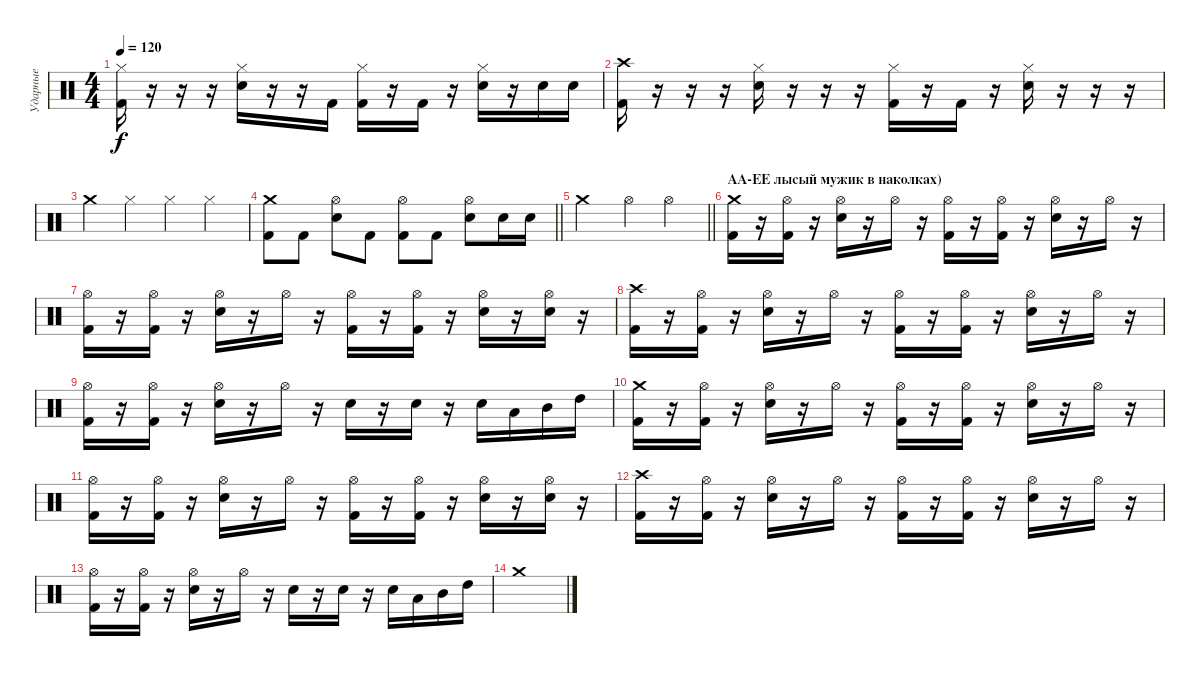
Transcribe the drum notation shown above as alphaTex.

\track ("Ударные" "Ударные") {instrument percussion}
\staff {score}
\articulation defaults
\ts (4 4)
\tempo 120
\clef neutral
\ks c
("Kick (hit) 2" "Hi-Hat (closed)").16{dy f} r.16 r.16 r.16 ("Hi-Hat (closed)" "Electric Snare (hit)").16 r.16 r.16 "Kick (hit) 2".16 ("Hi-Hat (closed)" "Kick (hit) 2").16 r.16 "Kick (hit) 2".16 r.16 ("Hi-Hat (closed)" "Electric Snare (hit)").16 r.16 "Electric Snare (hit)".16 "Electric Snare (hit)".16 |
("Kick (hit) 2" "Crash high (hit)").16 r.16 r.16 r.16 ("Hi-Hat (closed)" "Electric Snare (hit)").16 r.16 r.16 r.16 ("Hi-Hat (closed)" "Kick (hit) 2").16 r.16 "Kick (hit) 2".16 r.16 ("Hi-Hat (closed)" "Electric Snare (hit)").16 r.16 r.16 r.16 |
"Crash medium (hit)".4 "Hi-Hat (closed)".4 "Hi-Hat (closed)".4 "Hi-Hat (closed)".4 |
\barLineRight lightlight
("Crash medium (hit)" "Kick (hit) 2").8 "Kick (hit) 2".8 ("Hi-Hat (open)" "Electric Snare (hit)").8 "Kick (hit) 2".8 ("Hi-Hat (open)" "Kick (hit) 2").8 "Kick (hit) 2".8 ("Hi-Hat (open)" "Electric Snare (hit)").8 "Electric Snare (hit)".16 "Electric Snare (hit)".16 |
\barLineRight lightlight "Crash medium (hit)".2 "Hi-Hat (open)".4 "Hi-Hat (open)".4
|
\section ("" "АА-ЕЕ лысый мужик в наколках)")
("Crash medium (hit)" "Kick (hit) 2").16 r.16 ("Hi-Hat (open)" "Kick (hit) 2").16 r.16 ("Hi-Hat (open)" "Electric Snare (hit)").16 r.16 "Hi-Hat (open)".16 r.16 ("Hi-Hat (open)" "Kick (hit) 2").16 r.16 ("Hi-Hat (open)" "Kick (hit) 2").16 r.16 ("Hi-Hat (open)" "Electric Snare (hit)").16 r.16 "Hi-Hat (open)".16 r.16 |
("Hi-Hat (open)" "Kick (hit) 2").16 r.16 ("Hi-Hat (open)" "Kick (hit) 2").16 r.16 ("Hi-Hat (open)" "Electric Snare (hit)").16 r.16 "Hi-Hat (open)".16 r.16 ("Hi-Hat (open)" "Kick (hit) 2").16 r.16 ("Hi-Hat (open)" "Kick (hit) 2").16 r.16 ("Hi-Hat (open)" "Electric Snare (hit)").16 r.16 ("Hi-Hat (open)" "Electric Snare (hit)").16 r.16 |
("Crash high (hit)" "Kick (hit) 2").16 r.16 ("Hi-Hat (open)" "Kick (hit) 2").16 r.16 ("Hi-Hat (open)" "Electric Snare (hit)").16 r.16 "Hi-Hat (open)".16 r.16 ("Hi-Hat (open)" "Kick (hit) 2").16 r.16 ("Hi-Hat (open)" "Kick (hit) 2").16 r.16 ("Hi-Hat (open)" "Electric Snare (hit)").16 r.16 "Hi-Hat (open)".16 r.16 |
("Hi-Hat (open)" "Kick (hit) 2").16 r.16 ("Hi-Hat (open)" "Kick (hit) 2").16 r.16 ("Hi-Hat (open)" "Electric Snare (hit)").16 r.16 "Hi-Hat (open)".16 r.16 "Electric Snare (hit)".16 r.16 "Electric Snare (hit)".16 r.16 "Electric Snare (hit)".16 "Low Tom (hit)".16 "Mid Tom (hit)".16 "High Tom (hit)".16 |
("Crash medium (hit)" "Kick (hit) 2").16 r.16 ("Hi-Hat (open)" "Kick (hit) 2").16 r.16 ("Hi-Hat (open)" "Electric Snare (hit)").16 r.16 "Hi-Hat (open)".16 r.16 ("Hi-Hat (open)" "Kick (hit) 2").16 r.16 ("Hi-Hat (open)" "Kick (hit) 2").16 r.16 ("Hi-Hat (open)" "Electric Snare (hit)").16 r.16 "Hi-Hat (open)".16 r.16 |
("Hi-Hat (open)" "Kick (hit) 2").16 r.16 ("Hi-Hat (open)" "Kick (hit) 2").16 r.16 ("Hi-Hat (open)" "Electric Snare (hit)").16 r.16 "Hi-Hat (open)".16 r.16 ("Hi-Hat (open)" "Kick (hit) 2").16 r.16 ("Hi-Hat (open)" "Kick (hit) 2").16 r.16 ("Hi-Hat (open)" "Electric Snare (hit)").16 r.16 ("Hi-Hat (open)" "Electric Snare (hit)").16 r.16 |
("Crash high (hit)" "Kick (hit) 2").16 r.16 ("Hi-Hat (open)" "Kick (hit) 2").16 r.16 ("Hi-Hat (open)" "Electric Snare (hit)").16 r.16 "Hi-Hat (open)".16 r.16 ("Hi-Hat (open)" "Kick (hit) 2").16 r.16 ("Hi-Hat (open)" "Kick (hit) 2").16 r.16 ("Hi-Hat (open)" "Electric Snare (hit)").16 r.16 "Hi-Hat (open)".16 r.16 |
("Hi-Hat (open)" "Kick (hit) 2").16 r.16 ("Hi-Hat (open)" "Kick (hit) 2").16 r.16 ("Hi-Hat (open)" "Electric Snare (hit)").16 r.16 "Hi-Hat (open)".16 r.16 "Electric Snare (hit)".16 r.16 "Electric Snare (hit)".16 r.16 "Electric Snare (hit)".16 "Low Tom (hit)".16 "Mid Tom (hit)".16 "High Tom (hit)".16 |
"Crash medium (hit)".1
